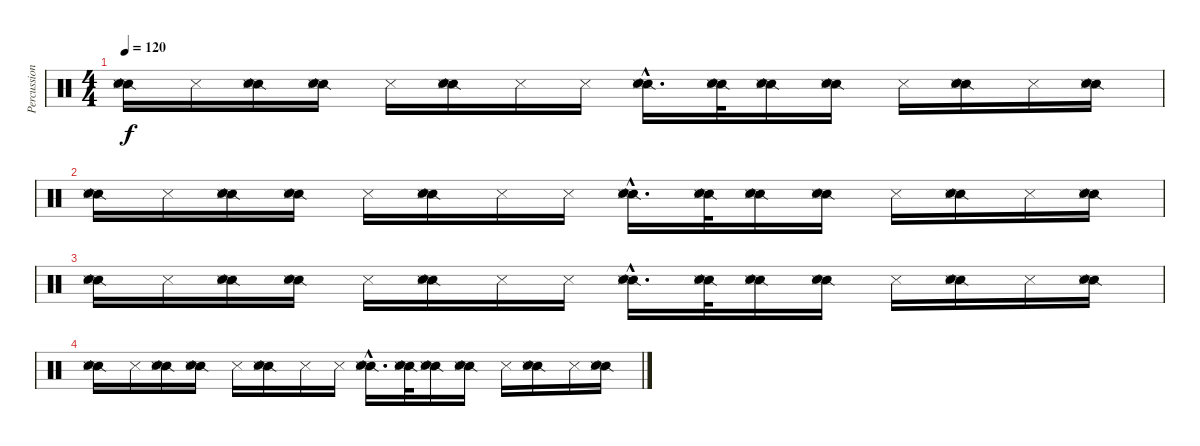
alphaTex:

\track ("Percussion" "Percussion") {instrument percussion}
\staff {score}
\articulation defaults
\ts (4 4)
\tempo 120
\clef neutral
\ks c
("Snare (side stick) 2" "Snare (hit) 2" "Metronome (hit)"{x}).16{dy f} "Metronome (hit)"{x}.16 ("Snare (side stick) 2" "Snare (hit) 2" "Metronome (hit)"{x}).16 ("Snare (side stick) 2" "Snare (hit) 2" "Metronome (hit)"{x}).16{volume 9} "Metronome (hit)"{x}.16 ("Snare (side stick) 2" "Snare (hit) 2" "Metronome (hit)"{x}).16 "Metronome (hit)"{x}.16 "Metronome (hit)"{x}.16 ("Snare (side stick) 2"{hac} "Snare (hit) 2"{hac} "Metronome (hit)"{hac x}).16{d} ("Snare (side stick) 2" "Snare (hit) 2" "Metronome (hit)"{x}).32 ("Snare (side stick) 2" "Snare (hit) 2" "Metronome (hit)"{x}).16 ("Snare (side stick) 2" "Snare (hit) 2" "Metronome (hit)"{x}).16 "Metronome (hit)"{x}.16 ("Snare (side stick) 2" "Snare (hit) 2" "Metronome (hit)"{x}).16 "Metronome (hit)"{x}.16 ("Snare (side stick) 2" "Snare (hit) 2" "Metronome (hit)"{x}).16 |
("Snare (side stick) 2" "Snare (hit) 2" "Metronome (hit)"{x}).16 "Metronome (hit)"{x}.16 ("Snare (side stick) 2" "Snare (hit) 2" "Metronome (hit)"{x}).16 ("Snare (side stick) 2" "Snare (hit) 2" "Metronome (hit)"{x}).16 "Metronome (hit)"{x}.16 ("Snare (side stick) 2" "Snare (hit) 2" "Metronome (hit)"{x}).16{volume 7} "Metronome (hit)"{x}.16 "Metronome (hit)"{x}.16 ("Snare (side stick) 2"{hac} "Snare (hit) 2"{hac} "Metronome (hit)"{hac x}).16{d} ("Snare (side stick) 2" "Snare (hit) 2" "Metronome (hit)"{x}).32 ("Snare (side stick) 2" "Snare (hit) 2" "Metronome (hit)"{x}).16 ("Snare (side stick) 2" "Snare (hit) 2" "Metronome (hit)"{x}).16 "Metronome (hit)"{x}.16 ("Snare (side stick) 2" "Snare (hit) 2" "Metronome (hit)"{x}).16 "Metronome (hit)"{x}.16 ("Snare (side stick) 2" "Snare (hit) 2" "Metronome (hit)"{x}).16 |
("Snare (side stick) 2" "Snare (hit) 2" "Metronome (hit)"{x}).16{volume 5} "Metronome (hit)"{x}.16 ("Snare (side stick) 2" "Snare (hit) 2" "Metronome (hit)"{x}).16 ("Snare (side stick) 2" "Snare (hit) 2" "Metronome (hit)"{x}).16 "Metronome (hit)"{x}.16 ("Snare (side stick) 2" "Snare (hit) 2" "Metronome (hit)"{x}).16 "Metronome (hit)"{x}.16 "Metronome (hit)"{x}.16 ("Snare (side stick) 2"{hac} "Snare (hit) 2"{hac} "Metronome (hit)"{hac x}).16{d} ("Snare (side stick) 2" "Snare (hit) 2" "Metronome (hit)"{x}).32 ("Snare (side stick) 2" "Snare (hit) 2" "Metronome (hit)"{x}).16 ("Snare (side stick) 2" "Snare (hit) 2" "Metronome (hit)"{x}).16 "Metronome (hit)"{x}.16 ("Snare (side stick) 2" "Snare (hit) 2" "Metronome (hit)"{x}).16 "Metronome (hit)"{x}.16 ("Snare (side stick) 2" "Snare (hit) 2" "Metronome (hit)"{x}).16 |
("Snare (side stick) 2" "Snare (hit) 2" "Metronome (hit)"{x}).16{volume 2} "Metronome (hit)"{x}.16 ("Snare (side stick) 2" "Snare (hit) 2" "Metronome (hit)"{x}).16 ("Snare (side stick) 2" "Snare (hit) 2" "Metronome (hit)"{x}).16 "Metronome (hit)"{x}.16 ("Snare (side stick) 2" "Snare (hit) 2" "Metronome (hit)"{x}).16 "Metronome (hit)"{x}.16 "Metronome (hit)"{x}.16 ("Snare (side stick) 2"{hac} "Snare (hit) 2"{hac} "Metronome (hit)"{hac x}).16{d} ("Snare (side stick) 2" "Snare (hit) 2" "Metronome (hit)"{x}).32 ("Snare (side stick) 2" "Snare (hit) 2" "Metronome (hit)"{x}).16 ("Snare (side stick) 2" "Snare (hit) 2" "Metronome (hit)"{x}).16 "Metronome (hit)"{x}.16 ("Snare (side stick) 2" "Snare (hit) 2" "Metronome (hit)"{x}).16 "Metronome (hit)"{x}.16 ("Snare (side stick) 2" "Snare (hit) 2" "Metronome (hit)"{x}).16
